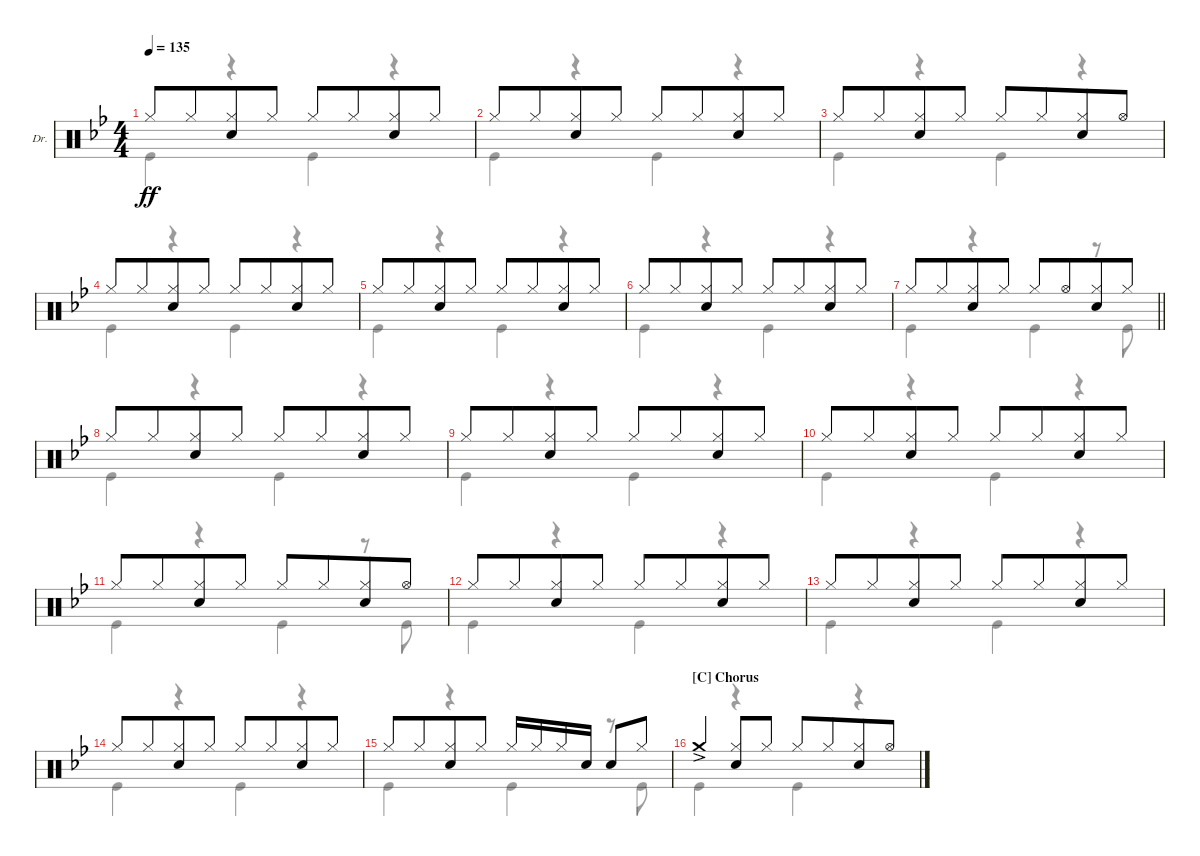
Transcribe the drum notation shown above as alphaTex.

\defaultSystemsLayout 4
\bracketExtendMode groupsimilarinstruments
\firstSystemTrackNameOrientation horizontal
\otherSystemsTrackNameOrientation horizontal
\track ("Drums" "Dr.") {instrument percussion}
\staff {score}
\articulation defaults
\voice
\ts (4 4)
\tempo 135
\clef neutral
\ks bb "Hi-Hat (closed)".8{dy ff beam merge} "Hi-Hat (closed)".8{beam merge}
("Hi-Hat (closed)" "Snare (hit) 2").8{beam merge} "Hi-Hat (closed)".8 "Hi-Hat (closed)".8{beam merge} "Hi-Hat (closed)".8{beam merge} ("Hi-Hat (closed)" "Snare (hit) 2").8{beam merge} "Hi-Hat (closed)".8 |
"Hi-Hat (closed)".8{beam merge} "Hi-Hat (closed)".8{beam merge} ("Hi-Hat (closed)" "Snare (hit) 2").8{beam merge} "Hi-Hat (closed)".8 "Hi-Hat (closed)".8{beam merge} "Hi-Hat (closed)".8{beam merge} ("Hi-Hat (closed)" "Snare (hit) 2").8{beam merge} "Hi-Hat (closed)".8 |
"Hi-Hat (closed)".8{beam merge} "Hi-Hat (closed)".8{beam merge} ("Hi-Hat (closed)" "Snare (hit) 2").8{beam merge} "Hi-Hat (closed)".8 "Hi-Hat (closed)".8{beam merge} "Hi-Hat (closed)".8{beam merge} ("Hi-Hat (closed)" "Snare (hit) 2").8{beam merge} "Hi-Hat (open)".8 |
"Hi-Hat (closed)".8{beam merge} "Hi-Hat (closed)".8{beam merge} ("Hi-Hat (closed)" "Snare (hit) 2").8{beam merge} "Hi-Hat (closed)".8 "Hi-Hat (closed)".8{beam merge} "Hi-Hat (closed)".8{beam merge} ("Hi-Hat (closed)" "Snare (hit) 2").8{beam merge} "Hi-Hat (closed)".8 |
"Hi-Hat (closed)".8{beam merge} "Hi-Hat (closed)".8{beam merge} ("Hi-Hat (closed)" "Snare (hit) 2").8{beam merge} "Hi-Hat (closed)".8 "Hi-Hat (closed)".8{beam merge} "Hi-Hat (closed)".8{beam merge} ("Hi-Hat (closed)" "Snare (hit) 2").8{beam merge} "Hi-Hat (closed)".8 |
"Hi-Hat (closed)".8{beam merge} "Hi-Hat (closed)".8{beam merge} ("Hi-Hat (closed)" "Snare (hit) 2").8{beam merge} "Hi-Hat (closed)".8 "Hi-Hat (closed)".8{beam merge} "Hi-Hat (closed)".8{beam merge} ("Hi-Hat (closed)" "Snare (hit) 2").8{beam merge} "Hi-Hat (closed)".8 |
\barLineRight lightlight "Hi-Hat (closed)".8{beam merge} "Hi-Hat (closed)".8{beam merge}
("Hi-Hat (closed)" "Snare (hit) 2").8{beam merge} "Hi-Hat (closed)".8 "Hi-Hat (closed)".8{beam merge} "Hi-Hat (open)".8{beam merge} ("Hi-Hat (closed)" "Snare (hit) 2").8{beam merge} "Hi-Hat (closed)".8 |
"Hi-Hat (closed)".8{beam merge} "Hi-Hat (closed)".8{beam merge} ("Hi-Hat (closed)" "Snare (hit) 2").8{beam merge} "Hi-Hat (closed)".8 "Hi-Hat (closed)".8{beam merge} "Hi-Hat (closed)".8{beam merge} ("Hi-Hat (closed)" "Snare (hit) 2").8{beam merge} "Hi-Hat (closed)".8 |
"Hi-Hat (closed)".8{beam merge} "Hi-Hat (closed)".8{beam merge} ("Hi-Hat (closed)" "Snare (hit) 2").8{beam merge} "Hi-Hat (closed)".8 "Hi-Hat (closed)".8{beam merge} "Hi-Hat (closed)".8{beam merge} ("Hi-Hat (closed)" "Snare (hit) 2").8{beam merge} "Hi-Hat (closed)".8 |
"Hi-Hat (closed)".8{beam merge} "Hi-Hat (closed)".8{beam merge} ("Hi-Hat (closed)" "Snare (hit) 2").8{beam merge} "Hi-Hat (closed)".8 "Hi-Hat (closed)".8{beam merge} "Hi-Hat (closed)".8{beam merge} ("Hi-Hat (closed)" "Snare (hit) 2").8{beam merge} "Hi-Hat (closed)".8 |
"Hi-Hat (closed)".8{beam merge} "Hi-Hat (closed)".8{beam merge} ("Hi-Hat (closed)" "Snare (hit) 2").8{beam merge} "Hi-Hat (closed)".8 "Hi-Hat (closed)".8{beam merge} "Hi-Hat (closed)".8{beam merge} ("Hi-Hat (closed)" "Snare (hit) 2").8{beam merge} "Hi-Hat (open)".8 |
"Hi-Hat (closed)".8{beam merge} "Hi-Hat (closed)".8{beam merge} ("Hi-Hat (closed)" "Snare (hit) 2").8{beam merge} "Hi-Hat (closed)".8 "Hi-Hat (closed)".8{beam merge} "Hi-Hat (closed)".8{beam merge} ("Hi-Hat (closed)" "Snare (hit) 2").8{beam merge} "Hi-Hat (closed)".8 |
"Hi-Hat (closed)".8{beam merge} "Hi-Hat (closed)".8{beam merge} ("Hi-Hat (closed)" "Snare (hit) 2").8{beam merge} "Hi-Hat (closed)".8 "Hi-Hat (closed)".8{beam merge} "Hi-Hat (closed)".8{beam merge} ("Hi-Hat (closed)" "Snare (hit) 2").8{beam merge} "Hi-Hat (closed)".8 |
"Hi-Hat (closed)".8{beam merge} "Hi-Hat (closed)".8{beam merge} ("Hi-Hat (closed)" "Snare (hit) 2").8{beam merge} "Hi-Hat (closed)".8 "Hi-Hat (closed)".8{beam merge} "Hi-Hat (closed)".8{beam merge} ("Hi-Hat (closed)" "Snare (hit) 2").8{beam merge} "Hi-Hat (closed)".8 |
"Hi-Hat (closed)".8{beam merge} "Hi-Hat (closed)".8{beam merge} ("Hi-Hat (closed)" "Snare (hit) 2").8{beam merge} "Hi-Hat (closed)".8 "Hi-Hat (closed)".16{beam merge} "Hi-Hat (closed)".16{beam merge} "Hi-Hat (closed)".16{beam merge} "Snare (hit) 2".16 "Snare (hit) 2".8 "Hi-Hat (closed)".8 |
\section ("C" "Chorus")
"Crash medium (hit)"{ac}.4{beam merge} ("Hi-Hat (closed)" "Snare (hit) 2").8{beam merge} "Hi-Hat (closed)".8 "Hi-Hat (closed)".8{beam merge} "Hi-Hat (closed)".8{beam merge} ("Hi-Hat (closed)" "Snare (hit) 2").8{beam merge} "Hi-Hat (open)".8
\voice
\clef neutral
\ottava regular
\simile none
\ks bb "Kick (hit)".4{dy ff}
r.4 "Kick (hit)".4 r.4 |
"Kick (hit)".4 r.4 "Kick (hit)".4 r.4 |
"Kick (hit)".4 r.4 "Kick (hit)".4 r.4 |
"Kick (hit)".4 r.4 "Kick (hit)".4 r.4 |
"Kick (hit)".4 r.4 "Kick (hit)".4 r.4 |
"Kick (hit)".4 r.4 "Kick (hit)".4 r.4 |
\barLineRight lightlight "Kick (hit)".4
r.4 "Kick (hit)".4 r.8 "Kick (hit)".8 |
"Kick (hit)".4 r.4 "Kick (hit)".4 r.4 |
"Kick (hit)".4 r.4 "Kick (hit)".4 r.4 |
"Kick (hit)".4 r.4 "Kick (hit)".4 r.4 |
"Kick (hit)".4 r.4 "Kick (hit)".4 r.8 "Kick (hit)".8 |
"Kick (hit)".4 r.4 "Kick (hit)".4 r.4 |
"Kick (hit)".4 r.4 "Kick (hit)".4 r.4 |
"Kick (hit)".4 r.4 "Kick (hit)".4 r.4 |
"Kick (hit)".4 r.4 "Kick (hit)".4 r.8 "Kick (hit)".8 |
"Kick (hit)".4 r.4 "Kick (hit)".4 r.4
